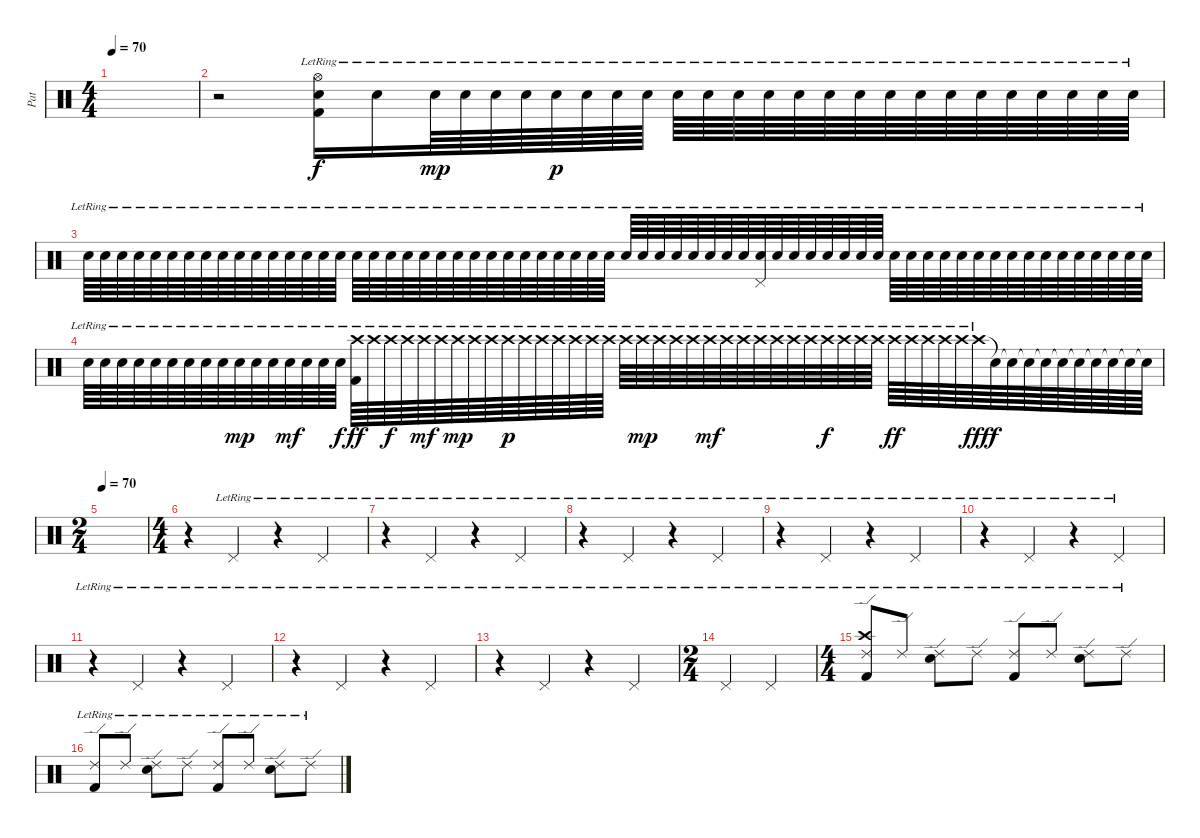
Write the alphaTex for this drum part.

\track ("Pat" "Pat") {instrument percussion}
\staff {score}
\articulation defaults
\ts (4 4)
\tempo 70
\tempo 101
\tempo 70
\clef neutral
\ks c
|
r.2 ("Hi-Hat (open)"{lr} "Electric Snare (hit)"{lr} "Kick (hit) 2"{lr}).16 "Electric Snare (hit)"{lr}.16 "Electric Snare (hit)"{lr}.64{dy mp} "Electric Snare (hit)"{lr}.64 "Electric Snare (hit)"{lr}.64 "Electric Snare (hit)"{lr}.64 "Electric Snare (hit)"{lr}.64{dy p} "Electric Snare (hit)"{lr}.64 "Electric Snare (hit)"{lr}.64 "Electric Snare (hit)"{lr}.64 "Electric Snare (hit)"{lr}.64 "Electric Snare (hit)"{lr}.64 "Electric Snare (hit)"{lr}.64 "Electric Snare (hit)"{lr}.64 "Electric Snare (hit)"{lr}.64 "Electric Snare (hit)"{lr}.64 "Electric Snare (hit)"{lr}.64 "Electric Snare (hit)"{lr}.64 "Electric Snare (hit)"{lr}.64 "Electric Snare (hit)"{lr}.64 "Electric Snare (hit)"{lr}.64 "Electric Snare (hit)"{lr}.64 "Electric Snare (hit)"{lr}.64 "Electric Snare (hit)"{lr}.64 "Electric Snare (hit)"{lr}.64 "Electric Snare (hit)"{lr}.64 |
"Electric Snare (hit)"{lr}.64 "Electric Snare (hit)"{lr}.64 "Electric Snare (hit)"{lr}.64 "Electric Snare (hit)"{lr}.64 "Electric Snare (hit)"{lr}.64 "Electric Snare (hit)"{lr}.64 "Electric Snare (hit)"{lr}.64 "Electric Snare (hit)"{lr}.64 "Electric Snare (hit)"{lr}.64 "Electric Snare (hit)"{lr}.64 "Electric Snare (hit)"{lr}.64 "Electric Snare (hit)"{lr}.64 "Electric Snare (hit)"{lr}.64 "Electric Snare (hit)"{lr}.64 "Electric Snare (hit)"{lr}.64 "Electric Snare (hit)"{lr}.64 "Electric Snare (hit)"{lr}.64 "Electric Snare (hit)"{lr}.64 "Electric Snare (hit)"{lr}.64 "Electric Snare (hit)"{lr}.64 "Electric Snare (hit)"{lr}.64 "Electric Snare (hit)"{lr}.64 "Electric Snare (hit)"{lr}.64 "Electric Snare (hit)"{lr}.64 "Electric Snare (hit)"{lr}.64 "Electric Snare (hit)"{lr}.64 "Electric Snare (hit)"{lr}.64 "Electric Snare (hit)"{lr}.64 "Electric Snare (hit)"{lr}.64 "Electric Snare (hit)"{lr}.64 "Electric Snare (hit)"{lr}.64 "Electric Snare (hit)"{lr}.64 "Electric Snare (hit)"{lr}.64 "Electric Snare (hit)"{lr}.64 "Electric Snare (hit)"{lr}.64 "Electric Snare (hit)"{lr}.64 "Electric Snare (hit)"{lr}.64 "Electric Snare (hit)"{lr}.64 "Electric Snare (hit)"{lr}.64 "Electric Snare (hit)"{lr}.64 ("Electric Snare (hit)"{lr} "Pedal Hi-Hat (hit)"{lr}).64 "Electric Snare (hit)"{lr}.64 "Electric Snare (hit)"{lr}.64 "Electric Snare (hit)"{lr}.64 "Electric Snare (hit)"{lr}.64 "Electric Snare (hit)"{lr}.64 "Electric Snare (hit)"{lr}.64 "Electric Snare (hit)"{lr}.64 "Electric Snare (hit)"{lr}.64 "Electric Snare (hit)"{lr}.64 "Electric Snare (hit)"{lr}.64 "Electric Snare (hit)"{lr}.64 "Electric Snare (hit)"{lr}.64 "Electric Snare (hit)"{lr}.64 "Electric Snare (hit)"{lr}.64 "Electric Snare (hit)"{lr}.64 "Electric Snare (hit)"{lr}.64 "Electric Snare (hit)"{lr}.64 "Electric Snare (hit)"{lr}.64 "Electric Snare (hit)"{lr}.64 "Electric Snare (hit)"{lr}.64 "Electric Snare (hit)"{lr}.64 "Electric Snare (hit)"{lr}.64 "Electric Snare (hit)"{lr}.64 |
"Electric Snare (hit)"{lr}.64 "Electric Snare (hit)"{lr}.64 "Electric Snare (hit)"{lr}.64 "Electric Snare (hit)"{lr}.64 "Electric Snare (hit)"{lr}.64 "Electric Snare (hit)"{lr}.64 "Electric Snare (hit)"{lr}.64 "Electric Snare (hit)"{lr}.64 "Electric Snare (hit)"{lr}.64 "Electric Snare (hit)"{lr}.64{dy mp} "Electric Snare (hit)"{lr}.64 "Electric Snare (hit)"{lr}.64 "Electric Snare (hit)"{lr}.64{dy mf} "Electric Snare (hit)"{lr}.64 "Electric Snare (hit)"{lr}.64 "Electric Snare (hit)"{lr}.64{dy f} ("Crash high (hit)"{lr} "Kick (hit) 2"{lr}).64{dy ff} "Crash high (hit)"{lr}.64 "Crash high (hit)"{lr}.64{dy f} "Crash high (hit)"{lr}.64 "Crash high (hit)"{lr}.64{dy mf} "Crash high (hit)"{lr}.64 "Crash high (hit)"{lr}.64{dy mp} "Crash high (hit)"{lr}.64 "Crash high (hit)"{lr}.64 "Crash high (hit)"{lr}.64{dy p} "Crash high (hit)"{lr}.64 "Crash high (hit)"{lr}.64 "Crash high (hit)"{lr}.64 "Crash high (hit)"{lr}.64 "Crash high (hit)"{lr}.64 "Crash high (hit)"{lr}.64 "Crash high (hit)"{lr}.64 "Crash high (hit)"{lr}.64{dy mp} "Crash high (hit)"{lr}.64 "Crash high (hit)"{lr}.64 "Crash high (hit)"{lr}.64 "Crash high (hit)"{lr}.64{dy mf} "Crash high (hit)"{lr}.64 "Crash high (hit)"{lr}.64 "Crash high (hit)"{lr}.64 "Crash high (hit)"{lr}.64 "Crash high (hit)"{lr}.64 "Crash high (hit)"{lr}.64 "Crash high (hit)"{lr}.64{dy f} "Crash high (hit)"{lr}.64 "Crash high (hit)"{lr}.64 "Crash high (hit)"{lr}.64 "Crash high (hit)"{lr}.64{dy ff} "Crash high (hit)"{lr}.64 "Crash high (hit)"{lr}.64 "Crash high (hit)"{lr}.64 "Crash high (hit)"{lr}.64 "Crash high (hit)"{lr}.64{dy fff} "Snare (hit)"{t}.64{dy f} "Snare (hit)"{t}.64 "Snare (hit)"{t}.64 "Snare (hit)"{t}.64 "Snare (hit)"{t}.64 "Snare (hit)"{t}.64 "Snare (hit)"{t}.64 "Snare (hit)"{t}.64 "Snare (hit)"{t}.64 "Snare (hit)"{t}.64 |
\ts (2 4)
\tempo 70
|
\ts (4 4)
r.4 "Pedal Hi-Hat (hit)"{lr}.4 r.4 "Pedal Hi-Hat (hit)"{lr}.4 |
r.4 "Pedal Hi-Hat (hit)"{lr}.4 r.4 "Pedal Hi-Hat (hit)"{lr}.4 |
r.4 "Pedal Hi-Hat (hit)"{lr}.4 r.4 "Pedal Hi-Hat (hit)"{lr}.4 |
r.4 "Pedal Hi-Hat (hit)"{lr}.4 r.4 "Pedal Hi-Hat (hit)"{lr}.4 |
r.4 "Pedal Hi-Hat (hit)"{lr}.4 r.4 "Pedal Hi-Hat (hit)"{lr}.4 |
r.4 "Pedal Hi-Hat (hit)"{lr}.4 r.4 "Pedal Hi-Hat (hit)"{lr}.4 |
r.4 "Pedal Hi-Hat (hit)"{lr}.4 r.4 "Pedal Hi-Hat (hit)"{lr}.4 |
r.4 "Pedal Hi-Hat (hit)"{lr}.4 r.4 "Pedal Hi-Hat (hit)"{lr}.4 |
\ts (2 4)
"Pedal Hi-Hat (hit)"{lr}.4 "Pedal Hi-Hat (hit)"{lr}.4 |
\ts (4 4)
("Crash high (hit)"{lr} "Ride (edge) 2"{lr} "Kick (hit) 2"{lr}).8 "Ride (edge) 2"{lr}.8 ("Ride (edge) 2"{lr} "Electric Snare (hit)"{lr}).8 "Ride (edge) 2"{lr}.8 ("Ride (edge) 2"{lr} "Kick (hit) 2"{lr}).8 "Ride (edge) 2"{lr}.8 ("Ride (edge) 2"{lr} "Electric Snare (hit)"{lr}).8 "Ride (edge) 2"{lr}.8 |
("Ride (edge) 2"{lr} "Kick (hit) 2"{lr}).8 "Ride (edge) 2"{lr}.8 ("Ride (edge) 2"{lr} "Electric Snare (hit)"{lr}).8 "Ride (edge) 2"{lr}.8 ("Ride (edge) 2"{lr} "Kick (hit) 2"{lr}).8 "Ride (edge) 2"{lr}.8 ("Ride (edge) 2"{lr} "Electric Snare (hit)"{lr}).8 "Ride (edge) 2"{lr}.8
